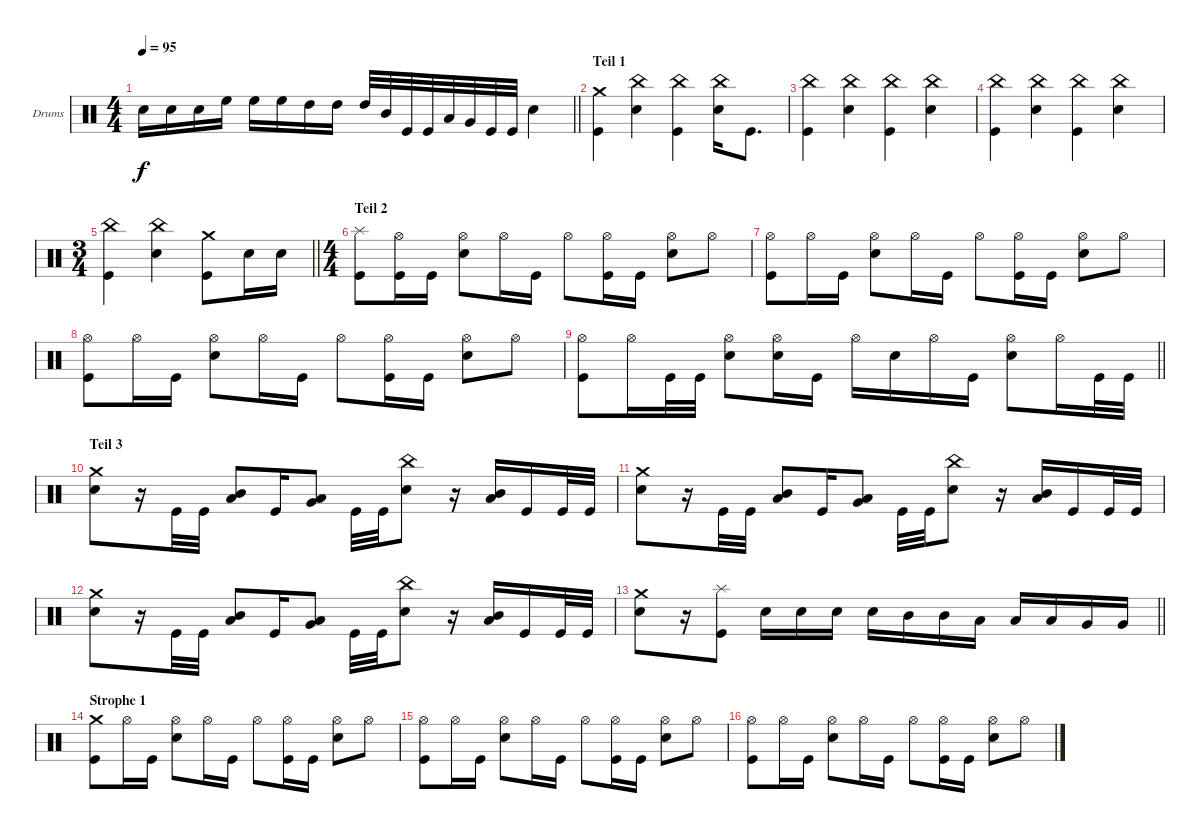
\bracketExtendMode groupsimilarinstruments
\firstSystemTrackNameOrientation horizontal
\otherSystemsTrackNameOrientation horizontal
\track ("Drumkit" "Drums") {instrument percussion}
\staff {score}
\articulation defaults
\ts (4 4)
\beaming (8 2 2 2 2)
\tempo 95
\clef neutral
\barLineRight lightlight
\ks c "Snare (hit) 2".16{dy f} "Snare (hit) 2".16 "Snare (hit) 2".16 "High Floor Tom (hit)".16 "High Floor Tom (hit)".16 "High Floor Tom (hit)".16 "High Tom (hit)".16 "High Tom (hit)".16 "High Tom (hit)".32 "Mid Tom (hit)".32 "Kick (hit)".32 "Kick (hit)".32 "Low Tom (hit)".32 "Very Low Tom (hit)".32 "Kick (hit)".32 "Kick (hit)".32 "Snare (hit) 2".4
|
\section ("" "Teil 1")
("Crash medium (hit)" "Kick (hit)").4 ("China (hit)" "Snare (hit) 2").4 ("China (hit)" "Kick (hit)").4 ("China (hit)" "Snare (hit) 2").16 "Kick (hit)".8{d} |
("China (hit)" "Kick (hit)").4 ("China (hit)" "Snare (hit) 2").4 ("China (hit)" "Kick (hit)").4 ("China (hit)" "Snare (hit) 2").4 |
("China (hit)" "Kick (hit)").4 ("China (hit)" "Snare (hit) 2").4 ("China (hit)" "Kick (hit)").4 ("China (hit)" "Snare (hit) 2").4 |
\ts (3 4)
\beaming (8 2 2 2)
\barLineRight lightlight
("China (hit)" "Kick (hit)").4 ("China (hit)" "Snare (hit) 2").4 ("Crash medium (hit)" "Kick (hit)").8 "Snare (hit) 2".16 "Snare (hit) 2".16 |
\ts (4 4)
\beaming (8 2 2 2 2)
\section ("" "Teil 2")
("Splash (hit)" "Kick (hit)").8 ("Hi-Hat (open)" "Kick (hit)").16 "Kick (hit)".16 ("Hi-Hat (open)" "Snare (hit) 2").8 "Hi-Hat (open)".16 "Kick (hit)".16 "Hi-Hat (open)".8 ("Hi-Hat (open)" "Kick (hit)").16 "Kick (hit)".16 ("Hi-Hat (open)" "Snare (hit) 2").8 "Hi-Hat (open)".8 |
("Hi-Hat (open)" "Kick (hit)").8 "Hi-Hat (open)".16 "Kick (hit)".16 ("Hi-Hat (open)" "Snare (hit) 2").8 "Hi-Hat (open)".16 "Kick (hit)".16 "Hi-Hat (open)".8 ("Hi-Hat (open)" "Kick (hit)").16 "Kick (hit)".16 ("Hi-Hat (open)" "Snare (hit) 2").8 "Hi-Hat (open)".8 |
("Hi-Hat (open)" "Kick (hit)").8 "Hi-Hat (open)".16 "Kick (hit)".16 ("Hi-Hat (open)" "Snare (hit) 2").8 "Hi-Hat (open)".16 "Kick (hit)".16 "Hi-Hat (open)".8 ("Hi-Hat (open)" "Kick (hit)").16 "Kick (hit)".16 ("Hi-Hat (open)" "Snare (hit) 2").8 "Hi-Hat (open)".8 |
\barLineRight lightlight
("Hi-Hat (open)" "Kick (hit)").8 "Hi-Hat (open)".16 "Kick (hit)".32 "Kick (hit)".32 ("Hi-Hat (open)" "Snare (hit) 2").8 ("Hi-Hat (open)" "Snare (hit) 2").16 "Kick (hit)".16 "Hi-Hat (open)".16 "Snare (hit) 2".16 "Hi-Hat (open)".16 "Kick (hit)".16 ("Hi-Hat (open)" "Snare (hit) 2").8 "Hi-Hat (open)".16 "Kick (hit)".32 "Kick (hit)".32 |
\section ("" "Teil 3")
("Crash medium (hit)" "Snare (hit) 2").8 r.16 "Kick (hit)".32 "Kick (hit)".32 ("Mid Tom (hit)" "Low Tom (hit)").8 "Kick (hit)".16 ("Low Tom (hit)" "Very Low Tom (hit)").8 "Kick (hit)".32 "Kick (hit)".32 ("China (hit)" "Snare (hit) 2").8 r.16 ("Mid Tom (hit)" "Low Tom (hit)").16 "Kick (hit)".16 "Kick (hit)".32 "Kick (hit)".32 |
("Crash medium (hit)" "Snare (hit) 2").8 r.16 "Kick (hit)".32 "Kick (hit)".32 ("Mid Tom (hit)" "Low Tom (hit)").8 "Kick (hit)".16 ("Low Tom (hit)" "Very Low Tom (hit)").8 "Kick (hit)".32 "Kick (hit)".32 ("China (hit)" "Snare (hit) 2").8 r.16 ("Mid Tom (hit)" "Low Tom (hit)").16 "Kick (hit)".16 "Kick (hit)".32 "Kick (hit)".32 |
("Crash medium (hit)" "Snare (hit) 2").8 r.16 "Kick (hit)".32 "Kick (hit)".32 ("Mid Tom (hit)" "Low Tom (hit)").8 "Kick (hit)".16 ("Low Tom (hit)" "Very Low Tom (hit)").8 "Kick (hit)".32 "Kick (hit)".32 ("China (hit)" "Snare (hit) 2").8 r.16 ("Mid Tom (hit)" "Low Tom (hit)").16 "Kick (hit)".16 "Kick (hit)".32 "Kick (hit)".32 |
\barLineRight lightlight
("Crash medium (hit)" "Snare (hit) 2").8 r.16 ("Splash (hit)" "Kick (hit)").8 "Snare (hit) 2".16 "Snare (hit) 2".16 "Snare (hit) 2".16 "Snare (hit) 2".16 "Mid Tom (hit)".16 "Mid Tom (hit)".16 "Low Tom (hit)".16 "Low Tom (hit)".16 "Low Tom (hit)".16 "Very Low Tom (hit)".16 "Very Low Tom (hit)".16 |
\section ("" "Strophe 1")
("Crash medium (hit)" "Kick (hit)").8 "Hi-Hat (open)".16 "Kick (hit)".16 ("Hi-Hat (open)" "Snare (hit) 2").8 "Hi-Hat (open)".16 "Kick (hit)".16 "Hi-Hat (open)".8 ("Hi-Hat (open)" "Kick (hit)").16 "Kick (hit)".16 ("Hi-Hat (open)" "Snare (hit) 2").8 "Hi-Hat (open)".8 |
("Hi-Hat (open)" "Kick (hit)").8 "Hi-Hat (open)".16 "Kick (hit)".16 ("Hi-Hat (open)" "Snare (hit) 2").8 "Hi-Hat (open)".16 "Kick (hit)".16 "Hi-Hat (open)".8 ("Hi-Hat (open)" "Kick (hit)").16 "Kick (hit)".16 ("Hi-Hat (open)" "Snare (hit) 2").8 "Hi-Hat (open)".8 |
("Hi-Hat (open)" "Kick (hit)").8 "Hi-Hat (open)".16 "Kick (hit)".16 ("Hi-Hat (open)" "Snare (hit) 2").8 "Hi-Hat (open)".16 "Kick (hit)".16 "Hi-Hat (open)".8 ("Hi-Hat (open)" "Kick (hit)").16 "Kick (hit)".16 ("Hi-Hat (open)" "Snare (hit) 2").8 "Hi-Hat (open)".8
